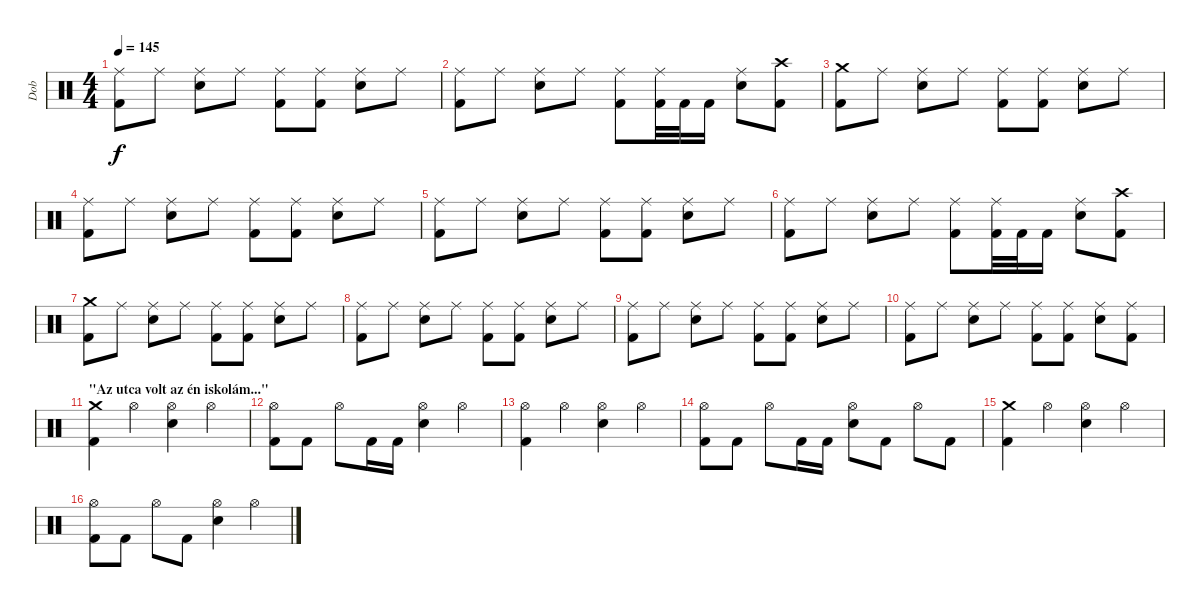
\track ("Dob" "Dob") {instrument percussion}
\staff {score}
\articulation defaults
\ts (4 4)
\tempo 145
\clef neutral
\ks c
("Ride (middle)" "Kick (hit) 2").8{dy f} "Ride (middle)".8 ("Ride (middle)" "Electric Snare (hit)").8 "Ride (middle)".8 ("Ride (middle)" "Kick (hit) 2").8 ("Ride (middle)" "Kick (hit) 2").8 ("Ride (middle)" "Electric Snare (hit)").8 "Ride (middle)".8 |
("Ride (middle)" "Kick (hit) 2").8 "Ride (middle)".8 ("Ride (middle)" "Electric Snare (hit)").8 "Ride (middle)".8 ("Ride (middle)" "Kick (hit) 2").8 ("Ride (middle)" "Kick (hit) 2").32 "Kick (hit) 2".32 "Kick (hit) 2".16 ("Ride (middle)" "Electric Snare (hit)").8 ("Crash high (hit)" "Kick (hit) 2").8 |
("Crash medium (hit)" "Kick (hit) 2").8 "Ride (middle)".8 ("Ride (middle)" "Electric Snare (hit)").8 "Ride (middle)".8 ("Ride (middle)" "Kick (hit) 2").8 ("Ride (middle)" "Kick (hit) 2").8 ("Ride (middle)" "Electric Snare (hit)").8 "Ride (middle)".8 |
("Ride (middle)" "Kick (hit) 2").8 "Ride (middle)".8 ("Ride (middle)" "Electric Snare (hit)").8 "Ride (middle)".8 ("Ride (middle)" "Kick (hit) 2").8 ("Ride (middle)" "Kick (hit) 2").8 ("Ride (middle)" "Electric Snare (hit)").8 "Ride (middle)".8 |
("Ride (middle)" "Kick (hit) 2").8 "Ride (middle)".8 ("Ride (middle)" "Electric Snare (hit)").8 "Ride (middle)".8 ("Ride (middle)" "Kick (hit) 2").8 ("Ride (middle)" "Kick (hit) 2").8 ("Ride (middle)" "Electric Snare (hit)").8 "Ride (middle)".8 |
("Ride (middle)" "Kick (hit) 2").8 "Ride (middle)".8 ("Ride (middle)" "Electric Snare (hit)").8 "Ride (middle)".8 ("Ride (middle)" "Kick (hit) 2").8 ("Ride (middle)" "Kick (hit) 2").32 "Kick (hit) 2".32 "Kick (hit) 2".16 ("Ride (middle)" "Electric Snare (hit)").8 ("Crash high (hit)" "Kick (hit) 2").8 |
("Crash medium (hit)" "Kick (hit) 2").8 "Ride (middle)".8 ("Ride (middle)" "Electric Snare (hit)").8 "Ride (middle)".8 ("Ride (middle)" "Kick (hit) 2").8 ("Ride (middle)" "Kick (hit) 2").8 ("Ride (middle)" "Electric Snare (hit)").8 "Ride (middle)".8 |
("Ride (middle)" "Kick (hit) 2").8 "Ride (middle)".8 ("Ride (middle)" "Electric Snare (hit)").8 "Ride (middle)".8 ("Ride (middle)" "Kick (hit) 2").8 ("Ride (middle)" "Kick (hit) 2").8 ("Ride (middle)" "Electric Snare (hit)").8 "Ride (middle)".8 |
("Ride (middle)" "Kick (hit) 2").8 "Ride (middle)".8 ("Ride (middle)" "Electric Snare (hit)").8 "Ride (middle)".8 ("Ride (middle)" "Kick (hit) 2").8 ("Ride (middle)" "Kick (hit) 2").8 ("Ride (middle)" "Electric Snare (hit)").8 "Ride (middle)".8 |
("Ride (middle)" "Kick (hit) 2").8 "Ride (middle)".8 ("Ride (middle)" "Electric Snare (hit)").8 "Ride (middle)".8 ("Ride (middle)" "Kick (hit) 2").8 ("Ride (middle)" "Kick (hit) 2").8 ("Ride (middle)" "Electric Snare (hit)").8 ("Ride (middle)" "Kick (hit) 2").8 |
\section ("" "\"Az utca volt az én iskolám...\"")
("Crash medium (hit)" "Kick (hit) 2").4 "Hi-Hat (open)".4 ("Hi-Hat (open)" "Electric Snare (hit)").4 "Hi-Hat (open)".4 |
("Hi-Hat (open)" "Kick (hit) 2").8 "Kick (hit) 2".8 "Hi-Hat (open)".8 "Kick (hit) 2".16 "Kick (hit) 2".16 ("Hi-Hat (open)" "Electric Snare (hit)").4 "Hi-Hat (open)".4 |
("Hi-Hat (open)" "Kick (hit) 2").4 "Hi-Hat (open)".4 ("Hi-Hat (open)" "Electric Snare (hit)").4 "Hi-Hat (open)".4 |
("Hi-Hat (open)" "Kick (hit) 2").8 "Kick (hit) 2".8 "Hi-Hat (open)".8 "Kick (hit) 2".16 "Kick (hit) 2".16 ("Hi-Hat (open)" "Electric Snare (hit)").8 "Kick (hit) 2".8 "Hi-Hat (open)".8 "Kick (hit) 2".8 |
("Crash medium (hit)" "Kick (hit) 2").4 "Hi-Hat (open)".4 ("Hi-Hat (open)" "Electric Snare (hit)").4 "Hi-Hat (open)".4 |
("Hi-Hat (open)" "Kick (hit) 2").8 "Kick (hit) 2".8 "Hi-Hat (open)".8 "Kick (hit) 2".8 ("Hi-Hat (open)" "Electric Snare (hit)").4 "Hi-Hat (open)".4
